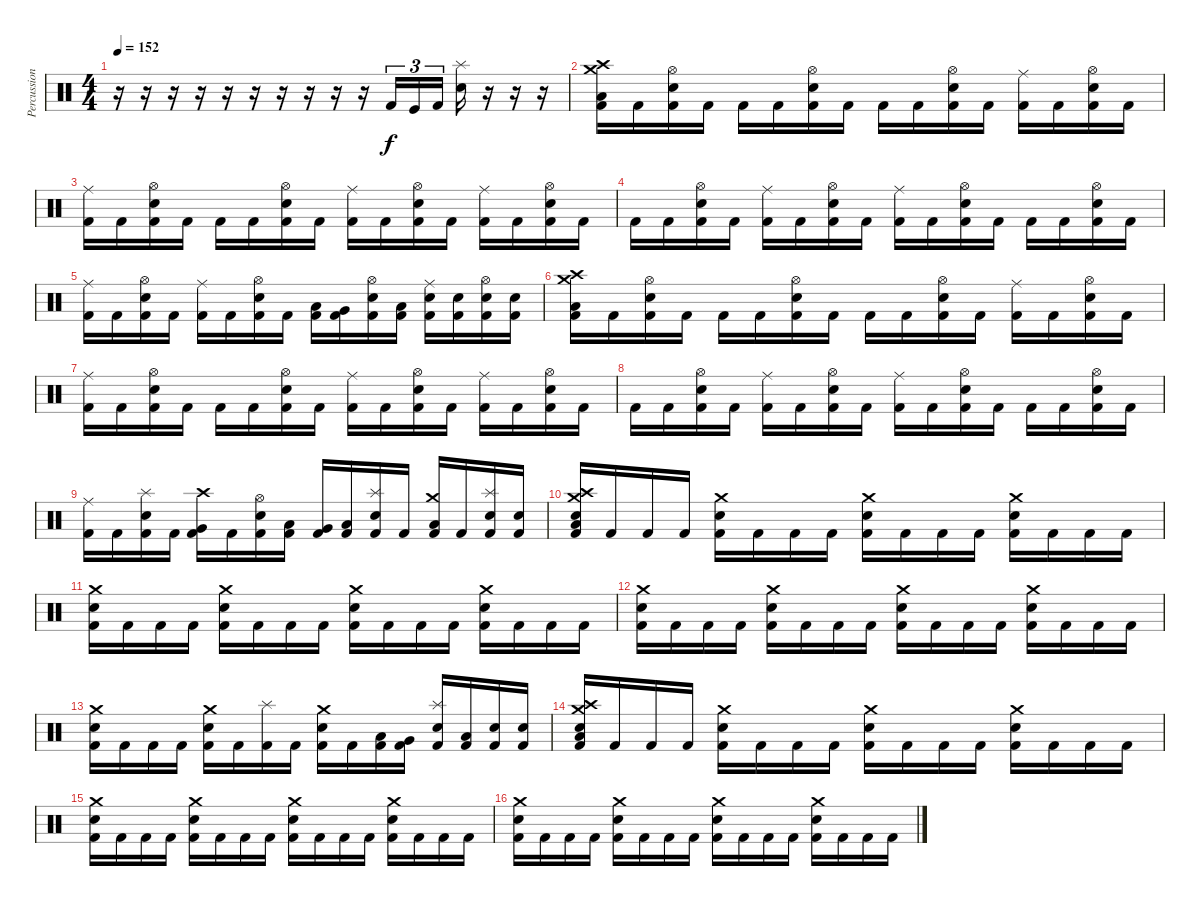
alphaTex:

\track ("Percussion" "Percussion") {instrument percussion}
\staff {score}
\articulation defaults
\ts (4 4)
\tempo 152
\clef neutral
\ks c
r.16{dy f} r.16 r.16 r.16 r.16 r.16 r.16 r.16 r.16 r.16 "Kick (hit) 2".16{tu (3 2)} "Kick (hit)".16{tu (3 2)} "Kick (hit) 2".16{tu (3 2)} ("Splash (hit)" "Electric Snare (hit)").16 r.16 r.16 r.16 |
("Crash high (hit)" "Crash medium (hit)" "Low Floor Tom (hit)" "Kick (hit) 2").16 "Kick (hit) 2".16 ("Hi-Hat (open)" "Electric Snare (hit)" "Kick (hit) 2").16 "Kick (hit) 2".16 "Kick (hit) 2".16 "Kick (hit) 2".16 ("Hi-Hat (open)" "Electric Snare (hit)" "Kick (hit) 2").16 "Kick (hit) 2".16 "Kick (hit) 2".16 "Kick (hit) 2".16 ("Hi-Hat (open)" "Electric Snare (hit)" "Kick (hit) 2").16 "Kick (hit) 2".16 ("Ride (middle)" "Kick (hit) 2").16 "Kick (hit) 2".16 ("Hi-Hat (open)" "Electric Snare (hit)" "Kick (hit) 2").16 "Kick (hit) 2".16 |
("Ride (middle)" "Kick (hit) 2").16 "Kick (hit) 2".16 ("Hi-Hat (open)" "Electric Snare (hit)" "Kick (hit) 2").16 "Kick (hit) 2".16 "Kick (hit) 2".16 "Kick (hit) 2".16 ("Hi-Hat (open)" "Electric Snare (hit)" "Kick (hit) 2").16 "Kick (hit) 2".16 ("Ride (middle)" "Kick (hit) 2").16 "Kick (hit) 2".16 ("Hi-Hat (open)" "Electric Snare (hit)" "Kick (hit) 2").16 "Kick (hit) 2".16 ("Ride (middle)" "Kick (hit) 2").16 "Kick (hit) 2".16 ("Hi-Hat (open)" "Electric Snare (hit)" "Kick (hit) 2").16 "Kick (hit) 2".16 |
"Kick (hit) 2".16 "Kick (hit) 2".16 ("Hi-Hat (open)" "Electric Snare (hit)" "Kick (hit) 2").16 "Kick (hit) 2".16 ("Ride (middle)" "Kick (hit) 2").16 "Kick (hit) 2".16 ("Hi-Hat (open)" "Electric Snare (hit)" "Kick (hit) 2").16 "Kick (hit) 2".16 ("Ride (middle)" "Kick (hit) 2").16 "Kick (hit) 2".16 ("Hi-Hat (open)" "Electric Snare (hit)" "Kick (hit) 2").16 "Kick (hit) 2".16 "Kick (hit) 2".16 "Kick (hit) 2".16 ("Hi-Hat (open)" "Electric Snare (hit)" "Kick (hit) 2").16 "Kick (hit) 2".16 |
("Ride (middle)" "Kick (hit) 2").16 "Kick (hit) 2".16 ("Hi-Hat (open)" "Electric Snare (hit)" "Kick (hit) 2").16 "Kick (hit) 2".16 ("Ride (middle)" "Kick (hit) 2").16 "Kick (hit) 2".16 ("Hi-Hat (open)" "Electric Snare (hit)" "Kick (hit) 2").16 "Kick (hit) 2".16 ("Low Tom (hit)" "Kick (hit) 2").16 ("Very Low Tom (hit)" "Kick (hit) 2").16 ("Hi-Hat (open)" "Electric Snare (hit)" "Kick (hit) 2").16 ("Low Tom (hit)" "Kick (hit) 2").16 ("Ride (middle)" "Electric Snare (hit)" "Kick (hit) 2").16 ("Electric Snare (hit)" "Kick (hit) 2").16 ("Hi-Hat (open)" "Electric Snare (hit)" "Kick (hit) 2").16 ("Electric Snare (hit)" "Kick (hit) 2").16 |
("Crash high (hit)" "Crash medium (hit)" "Low Floor Tom (hit)" "Kick (hit) 2").16 "Kick (hit) 2".16 ("Hi-Hat (open)" "Electric Snare (hit)" "Kick (hit) 2").16 "Kick (hit) 2".16 "Kick (hit) 2".16 "Kick (hit) 2".16 ("Hi-Hat (open)" "Electric Snare (hit)" "Kick (hit) 2").16 "Kick (hit) 2".16 "Kick (hit) 2".16 "Kick (hit) 2".16 ("Hi-Hat (open)" "Electric Snare (hit)" "Kick (hit) 2").16 "Kick (hit) 2".16 ("Ride (middle)" "Kick (hit) 2").16 "Kick (hit) 2".16 ("Hi-Hat (open)" "Electric Snare (hit)" "Kick (hit) 2").16 "Kick (hit) 2".16 |
("Ride (middle)" "Kick (hit) 2").16 "Kick (hit) 2".16 ("Hi-Hat (open)" "Electric Snare (hit)" "Kick (hit) 2").16 "Kick (hit) 2".16 "Kick (hit) 2".16 "Kick (hit) 2".16 ("Hi-Hat (open)" "Electric Snare (hit)" "Kick (hit) 2").16 "Kick (hit) 2".16 ("Ride (middle)" "Kick (hit) 2").16 "Kick (hit) 2".16 ("Hi-Hat (open)" "Electric Snare (hit)" "Kick (hit) 2").16 "Kick (hit) 2".16 ("Ride (middle)" "Kick (hit) 2").16 "Kick (hit) 2".16 ("Hi-Hat (open)" "Electric Snare (hit)" "Kick (hit) 2").16 "Kick (hit) 2".16 |
"Kick (hit) 2".16 "Kick (hit) 2".16 ("Hi-Hat (open)" "Electric Snare (hit)" "Kick (hit) 2").16 "Kick (hit) 2".16 ("Ride (middle)" "Kick (hit) 2").16 "Kick (hit) 2".16 ("Hi-Hat (open)" "Electric Snare (hit)" "Kick (hit) 2").16 "Kick (hit) 2".16 ("Ride (middle)" "Kick (hit) 2").16 "Kick (hit) 2".16 ("Hi-Hat (open)" "Electric Snare (hit)" "Kick (hit) 2").16 "Kick (hit) 2".16 "Kick (hit) 2".16 "Kick (hit) 2".16 ("Hi-Hat (open)" "Electric Snare (hit)" "Kick (hit) 2").16 "Kick (hit) 2".16 |
("Ride (middle)" "Kick (hit) 2").16 "Kick (hit) 2".16 ("Splash (hit)" "Electric Snare (hit)" "Kick (hit) 2").16 "Kick (hit) 2".16 ("Crash high (hit)" "Very Low Tom (hit)" "Kick (hit) 2").16 "Kick (hit) 2".16 ("Hi-Hat (open)" "Electric Snare (hit)" "Kick (hit) 2").16 ("Low Tom (hit)" "Kick (hit) 2").16 ("Very Low Tom (hit)" "Kick (hit) 2").16 ("Low Floor Tom (hit)" "Kick (hit) 2").16 ("Splash (hit)" "Electric Snare (hit)" "Kick (hit) 2").16 "Kick (hit) 2".16 ("Crash medium (hit)" "Low Tom (hit)" "Kick (hit) 2").16 "Kick (hit) 2".16 ("Splash (hit)" "Electric Snare (hit)" "Kick (hit) 2").16 ("Electric Snare (hit)" "Kick (hit) 2").16 |
("Crash high (hit)" "Crash medium (hit)" "Electric Snare (hit)" "Low Floor Tom (hit)" "Kick (hit) 2").16 "Kick (hit) 2".16 "Kick (hit) 2".16 "Kick (hit) 2".16 ("Crash medium (hit)" "Electric Snare (hit)" "Kick (hit) 2").16 "Kick (hit) 2".16 "Kick (hit) 2".16 "Kick (hit) 2".16 ("Crash medium (hit)" "Electric Snare (hit)" "Kick (hit) 2").16 "Kick (hit) 2".16 "Kick (hit) 2".16 "Kick (hit) 2".16 ("Crash medium (hit)" "Electric Snare (hit)" "Kick (hit) 2").16 "Kick (hit) 2".16 "Kick (hit) 2".16 "Kick (hit) 2".16 |
("Crash medium (hit)" "Electric Snare (hit)" "Kick (hit) 2").16 "Kick (hit) 2".16 "Kick (hit) 2".16 "Kick (hit) 2".16 ("Crash medium (hit)" "Electric Snare (hit)" "Kick (hit) 2").16 "Kick (hit) 2".16 "Kick (hit) 2".16 "Kick (hit) 2".16 ("Crash medium (hit)" "Electric Snare (hit)" "Kick (hit) 2").16 "Kick (hit) 2".16 "Kick (hit) 2".16 "Kick (hit) 2".16 ("Crash medium (hit)" "Electric Snare (hit)" "Kick (hit) 2").16 "Kick (hit) 2".16 "Kick (hit) 2".16 "Kick (hit) 2".16 |
("Crash medium (hit)" "Electric Snare (hit)" "Kick (hit) 2").16 "Kick (hit) 2".16 "Kick (hit) 2".16 "Kick (hit) 2".16 ("Crash medium (hit)" "Electric Snare (hit)" "Kick (hit) 2").16 "Kick (hit) 2".16 "Kick (hit) 2".16 "Kick (hit) 2".16 ("Crash medium (hit)" "Electric Snare (hit)" "Kick (hit) 2").16 "Kick (hit) 2".16 "Kick (hit) 2".16 "Kick (hit) 2".16 ("Crash medium (hit)" "Electric Snare (hit)" "Kick (hit) 2").16 "Kick (hit) 2".16 "Kick (hit) 2".16 "Kick (hit) 2".16 |
("Crash medium (hit)" "Electric Snare (hit)" "Kick (hit) 2").16 "Kick (hit) 2".16 "Kick (hit) 2".16 "Kick (hit) 2".16 ("Crash medium (hit)" "Electric Snare (hit)" "Kick (hit) 2").16 "Kick (hit) 2".16 ("Splash (hit)" "Kick (hit) 2").16 "Kick (hit) 2".16 ("Crash medium (hit)" "Electric Snare (hit)" "Kick (hit) 2").16 "Kick (hit) 2".16 ("Low Tom (hit)" "Kick (hit) 2").16 ("Very Low Tom (hit)" "Kick (hit) 2").16 ("Splash (hit)" "Electric Snare (hit)" "Kick (hit) 2").16 ("Low Tom (hit)" "Kick (hit) 2").16 ("Electric Snare (hit)" "Kick (hit) 2").16 ("Electric Snare (hit)" "Kick (hit) 2").16 |
("Crash high (hit)" "Crash medium (hit)" "Electric Snare (hit)" "Low Floor Tom (hit)" "Kick (hit) 2").16 "Kick (hit) 2".16 "Kick (hit) 2".16 "Kick (hit) 2".16 ("Crash medium (hit)" "Electric Snare (hit)" "Kick (hit) 2").16 "Kick (hit) 2".16 "Kick (hit) 2".16 "Kick (hit) 2".16 ("Crash medium (hit)" "Electric Snare (hit)" "Kick (hit) 2").16 "Kick (hit) 2".16 "Kick (hit) 2".16 "Kick (hit) 2".16 ("Crash medium (hit)" "Electric Snare (hit)" "Kick (hit) 2").16 "Kick (hit) 2".16 "Kick (hit) 2".16 "Kick (hit) 2".16 |
("Crash medium (hit)" "Electric Snare (hit)" "Kick (hit) 2").16 "Kick (hit) 2".16 "Kick (hit) 2".16 "Kick (hit) 2".16 ("Crash medium (hit)" "Electric Snare (hit)" "Kick (hit) 2").16 "Kick (hit) 2".16 "Kick (hit) 2".16 "Kick (hit) 2".16 ("Crash medium (hit)" "Electric Snare (hit)" "Kick (hit) 2").16 "Kick (hit) 2".16 "Kick (hit) 2".16 "Kick (hit) 2".16 ("Crash medium (hit)" "Electric Snare (hit)" "Kick (hit) 2").16 "Kick (hit) 2".16 "Kick (hit) 2".16 "Kick (hit) 2".16 |
("Crash medium (hit)" "Electric Snare (hit)" "Kick (hit) 2").16 "Kick (hit) 2".16 "Kick (hit) 2".16 "Kick (hit) 2".16 ("Crash medium (hit)" "Electric Snare (hit)" "Kick (hit) 2").16 "Kick (hit) 2".16 "Kick (hit) 2".16 "Kick (hit) 2".16 ("Crash medium (hit)" "Electric Snare (hit)" "Kick (hit) 2").16 "Kick (hit) 2".16 "Kick (hit) 2".16 "Kick (hit) 2".16 ("Crash medium (hit)" "Electric Snare (hit)" "Kick (hit) 2").16 "Kick (hit) 2".16 "Kick (hit) 2".16 "Kick (hit) 2".16
